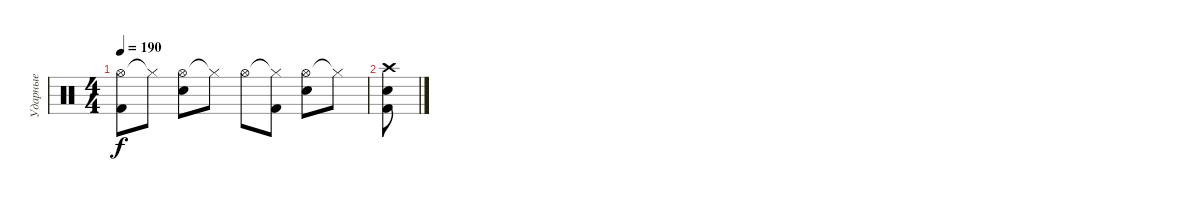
\track ("Ударные" "Ударные") {instrument percussion}
\staff {score}
\articulation defaults
\ts (4 4)
\tempo 190
\clef neutral
\ks c
("Hi-Hat (open)" "Kick (hit) 2").8{dy f} "Hi-Hat (closed)"{t}.8 ("Hi-Hat (open)" "Snare (hit) 2").8 "Hi-Hat (closed)"{t}.8 "Hi-Hat (open)".8 ("Hi-Hat (closed)"{t} "Kick (hit) 2").8 ("Hi-Hat (open)" "Snare (hit) 2").8 "Hi-Hat (closed)"{t}.8 |
("Crash high (hit)" "Snare (hit) 2" "Kick (hit) 2").8
